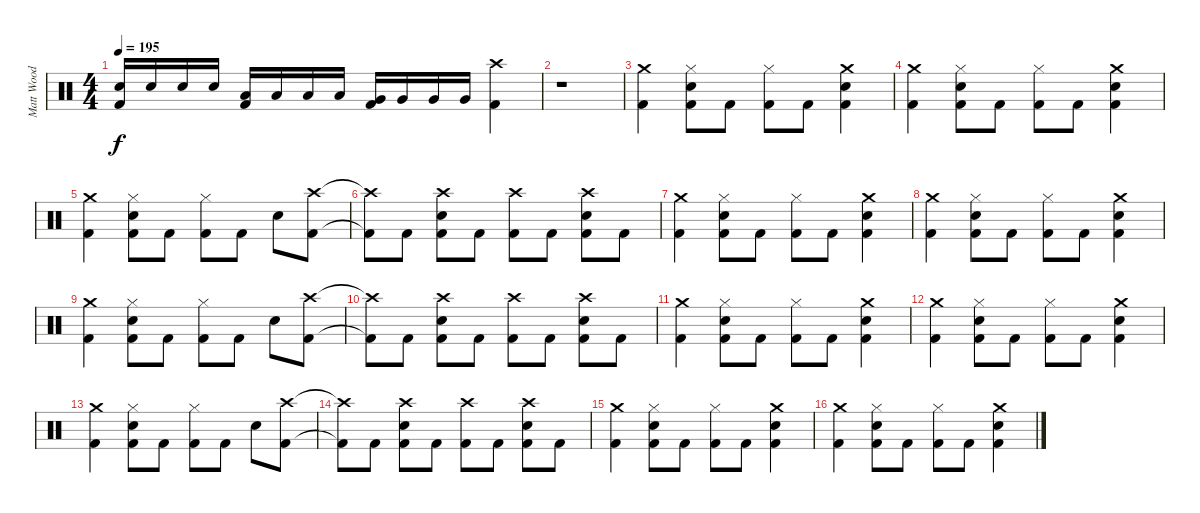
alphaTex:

\track ("Matt Wood" "Matt Wood") {instrument percussion}
\staff {score}
\articulation defaults
\ts (4 4)
\tempo 195
\clef neutral
\ks c
("Snare (hit) 2" "Kick (hit) 2").16{dy f} "Snare (hit) 2".16 "Snare (hit) 2".16 "Snare (hit) 2".16 ("Low Tom (hit)" "Kick (hit) 2").16 "Low Tom (hit)".16 "Low Tom (hit)".16 "Low Tom (hit)".16 ("Very Low Tom (hit)" "Kick (hit) 2").16 "Very Low Tom (hit)".16 "Very Low Tom (hit)".16 "Very Low Tom (hit)".16 ("Crash high (hit)" "Kick (hit) 2").4 |
r.1 |
("Crash medium (hit)" "Kick (hit) 2").4 ("Hi-Hat (closed)" "Snare (hit) 2" "Kick (hit) 2").8 "Kick (hit) 2".8 ("Hi-Hat (closed)" "Kick (hit) 2").8 "Kick (hit) 2".8 ("Crash medium (hit)" "Snare (hit) 2" "Kick (hit) 2").4 |
("Crash medium (hit)" "Kick (hit) 2").4 ("Hi-Hat (closed)" "Snare (hit) 2" "Kick (hit) 2").8 "Kick (hit) 2".8 ("Hi-Hat (closed)" "Kick (hit) 2").8 "Kick (hit) 2".8 ("Crash medium (hit)" "Snare (hit) 2" "Kick (hit) 2").4 |
("Crash medium (hit)" "Kick (hit) 2").4 ("Hi-Hat (closed)" "Snare (hit) 2" "Kick (hit) 2").8 "Kick (hit) 2".8 ("Hi-Hat (closed)" "Kick (hit) 2").8 "Kick (hit) 2".8 "Snare (hit) 2".8 ("Crash high (hit)" "Kick (hit) 2").8 |
("Crash high (hit)"{t} "Kick (hit) 2"{t}).8 "Kick (hit) 2".8 ("Crash high (hit)" "Snare (hit) 2" "Kick (hit) 2").8 "Kick (hit) 2".8 ("Crash high (hit)" "Kick (hit) 2").8 "Kick (hit) 2".8 ("Crash high (hit)" "Snare (hit) 2" "Kick (hit) 2").8 "Kick (hit) 2".8 |
("Crash medium (hit)" "Kick (hit) 2").4 ("Hi-Hat (closed)" "Snare (hit) 2" "Kick (hit) 2").8 "Kick (hit) 2".8 ("Hi-Hat (closed)" "Kick (hit) 2").8 "Kick (hit) 2".8 ("Crash medium (hit)" "Snare (hit) 2" "Kick (hit) 2").4 |
("Crash medium (hit)" "Kick (hit) 2").4 ("Hi-Hat (closed)" "Snare (hit) 2" "Kick (hit) 2").8 "Kick (hit) 2".8 ("Hi-Hat (closed)" "Kick (hit) 2").8 "Kick (hit) 2".8 ("Crash medium (hit)" "Snare (hit) 2" "Kick (hit) 2").4 |
("Crash medium (hit)" "Kick (hit) 2").4 ("Hi-Hat (closed)" "Snare (hit) 2" "Kick (hit) 2").8 "Kick (hit) 2".8 ("Hi-Hat (closed)" "Kick (hit) 2").8 "Kick (hit) 2".8 "Snare (hit) 2".8 ("Crash high (hit)" "Kick (hit) 2").8 |
("Crash high (hit)"{t} "Kick (hit) 2"{t}).8 "Kick (hit) 2".8 ("Crash high (hit)" "Snare (hit) 2" "Kick (hit) 2").8 "Kick (hit) 2".8 ("Crash high (hit)" "Kick (hit) 2").8 "Kick (hit) 2".8 ("Crash high (hit)" "Snare (hit) 2" "Kick (hit) 2").8 "Kick (hit) 2".8 |
("Crash medium (hit)" "Kick (hit) 2").4 ("Hi-Hat (closed)" "Snare (hit) 2" "Kick (hit) 2").8 "Kick (hit) 2".8 ("Hi-Hat (closed)" "Kick (hit) 2").8 "Kick (hit) 2".8 ("Crash medium (hit)" "Snare (hit) 2" "Kick (hit) 2").4 |
("Crash medium (hit)" "Kick (hit) 2").4 ("Hi-Hat (closed)" "Snare (hit) 2" "Kick (hit) 2").8 "Kick (hit) 2".8 ("Hi-Hat (closed)" "Kick (hit) 2").8 "Kick (hit) 2".8 ("Crash medium (hit)" "Snare (hit) 2" "Kick (hit) 2").4 |
("Crash medium (hit)" "Kick (hit) 2").4 ("Hi-Hat (closed)" "Snare (hit) 2" "Kick (hit) 2").8 "Kick (hit) 2".8 ("Hi-Hat (closed)" "Kick (hit) 2").8 "Kick (hit) 2".8 "Snare (hit) 2".8 ("Crash high (hit)" "Kick (hit) 2").8 |
("Crash high (hit)"{t} "Kick (hit) 2"{t}).8 "Kick (hit) 2".8 ("Crash high (hit)" "Snare (hit) 2" "Kick (hit) 2").8 "Kick (hit) 2".8 ("Crash high (hit)" "Kick (hit) 2").8 "Kick (hit) 2".8 ("Crash high (hit)" "Snare (hit) 2" "Kick (hit) 2").8 "Kick (hit) 2".8 |
("Crash medium (hit)" "Kick (hit) 2").4 ("Hi-Hat (closed)" "Snare (hit) 2" "Kick (hit) 2").8 "Kick (hit) 2".8 ("Hi-Hat (closed)" "Kick (hit) 2").8 "Kick (hit) 2".8 ("Crash medium (hit)" "Snare (hit) 2" "Kick (hit) 2").4 |
("Crash medium (hit)" "Kick (hit) 2").4 ("Hi-Hat (closed)" "Snare (hit) 2" "Kick (hit) 2").8 "Kick (hit) 2".8 ("Hi-Hat (closed)" "Kick (hit) 2").8 "Kick (hit) 2".8 ("Crash medium (hit)" "Snare (hit) 2" "Kick (hit) 2").4
